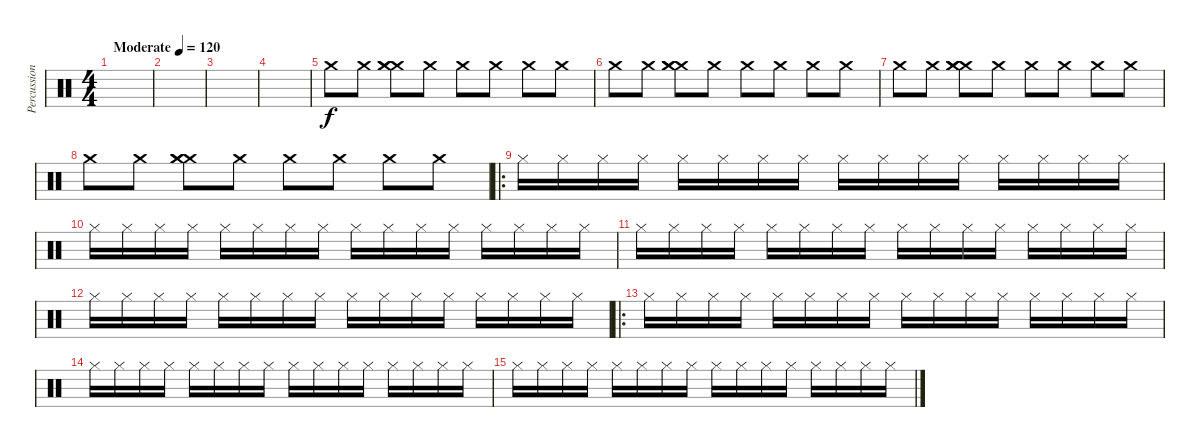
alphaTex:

\track ("Percussion" "Percussion") {instrument percussion}
\staff {score}
\articulation defaults
\ts (4 4)
\tempo (120 "Moderate")
\clef neutral
\ks c
|
|
|
|
"Crash medium (hit)".8{volume 10} "Crash medium (hit)".8 ("Crash medium (hit)" "Crash medium (hit)" "Crash medium (hit)").8 "Crash medium (hit)".8 "Crash medium (hit)".8 "Crash medium (hit)".8 "Crash medium (hit)".8 "Crash medium (hit)".8 |
"Crash medium (hit)".8 "Crash medium (hit)".8 ("Crash medium (hit)" "Crash medium (hit)" "Crash medium (hit)").8 "Crash medium (hit)".8 "Crash medium (hit)".8 "Crash medium (hit)".8 "Crash medium (hit)".8 "Crash medium (hit)".8 |
"Crash medium (hit)".8 "Crash medium (hit)".8 ("Crash medium (hit)" "Crash medium (hit)" "Crash medium (hit)").8 "Crash medium (hit)".8 "Crash medium (hit)".8 "Crash medium (hit)".8 "Crash medium (hit)".8 "Crash medium (hit)".8 |
"Crash medium (hit)".8 "Crash medium (hit)".8 ("Crash medium (hit)" "Crash medium (hit)" "Crash medium (hit)").8 "Crash medium (hit)".8 "Crash medium (hit)".8 "Crash medium (hit)".8 "Crash medium (hit)".8 "Crash medium (hit)".8 |
\ro "Hi-Hat (closed)".16 "Hi-Hat (closed)".16 "Hi-Hat (closed)".16 "Hi-Hat (closed)".16 "Hi-Hat (closed)".16 "Hi-Hat (closed)".16 "Hi-Hat (closed)".16 "Hi-Hat (closed)".16 "Hi-Hat (closed)".16 "Hi-Hat (closed)".16 "Hi-Hat (closed)".16 "Hi-Hat (closed)".16 "Hi-Hat (closed)".16 "Hi-Hat (closed)".16 "Hi-Hat (closed)".16 "Hi-Hat (closed)".16
|
"Hi-Hat (closed)".16 "Hi-Hat (closed)".16 "Hi-Hat (closed)".16 "Hi-Hat (closed)".16 "Hi-Hat (closed)".16 "Hi-Hat (closed)".16 "Hi-Hat (closed)".16 "Hi-Hat (closed)".16 "Hi-Hat (closed)".16 "Hi-Hat (closed)".16 "Hi-Hat (closed)".16 "Hi-Hat (closed)".16 "Hi-Hat (closed)".16 "Hi-Hat (closed)".16 "Hi-Hat (closed)".16 "Hi-Hat (closed)".16 |
"Hi-Hat (closed)".16 "Hi-Hat (closed)".16 "Hi-Hat (closed)".16 "Hi-Hat (closed)".16 "Hi-Hat (closed)".16 "Hi-Hat (closed)".16 "Hi-Hat (closed)".16 "Hi-Hat (closed)".16 "Hi-Hat (closed)".16 "Hi-Hat (closed)".16 "Hi-Hat (closed)".16 "Hi-Hat (closed)".16 "Hi-Hat (closed)".16 "Hi-Hat (closed)".16 "Hi-Hat (closed)".16 "Hi-Hat (closed)".16 |
"Hi-Hat (closed)".16 "Hi-Hat (closed)".16 "Hi-Hat (closed)".16 "Hi-Hat (closed)".16 "Hi-Hat (closed)".16 "Hi-Hat (closed)".16 "Hi-Hat (closed)".16 "Hi-Hat (closed)".16 "Hi-Hat (closed)".16 "Hi-Hat (closed)".16 "Hi-Hat (closed)".16 "Hi-Hat (closed)".16 "Hi-Hat (closed)".16 "Hi-Hat (closed)".16 "Hi-Hat (closed)".16 "Hi-Hat (closed)".16 |
\ro "Hi-Hat (closed)".16 "Hi-Hat (closed)".16 "Hi-Hat (closed)".16 "Hi-Hat (closed)".16 "Hi-Hat (closed)".16 "Hi-Hat (closed)".16 "Hi-Hat (closed)".16 "Hi-Hat (closed)".16 "Hi-Hat (closed)".16 "Hi-Hat (closed)".16 "Hi-Hat (closed)".16 "Hi-Hat (closed)".16 "Hi-Hat (closed)".16 "Hi-Hat (closed)".16 "Hi-Hat (closed)".16 "Hi-Hat (closed)".16
|
"Hi-Hat (closed)".16 "Hi-Hat (closed)".16 "Hi-Hat (closed)".16 "Hi-Hat (closed)".16 "Hi-Hat (closed)".16 "Hi-Hat (closed)".16 "Hi-Hat (closed)".16 "Hi-Hat (closed)".16 "Hi-Hat (closed)".16 "Hi-Hat (closed)".16 "Hi-Hat (closed)".16 "Hi-Hat (closed)".16 "Hi-Hat (closed)".16 "Hi-Hat (closed)".16 "Hi-Hat (closed)".16 "Hi-Hat (closed)".16 |
"Hi-Hat (closed)".16 "Hi-Hat (closed)".16 "Hi-Hat (closed)".16 "Hi-Hat (closed)".16 "Hi-Hat (closed)".16 "Hi-Hat (closed)".16 "Hi-Hat (closed)".16 "Hi-Hat (closed)".16 "Hi-Hat (closed)".16 "Hi-Hat (closed)".16 "Hi-Hat (closed)".16 "Hi-Hat (closed)".16 "Hi-Hat (closed)".16 "Hi-Hat (closed)".16 "Hi-Hat (closed)".16 "Hi-Hat (closed)".16
